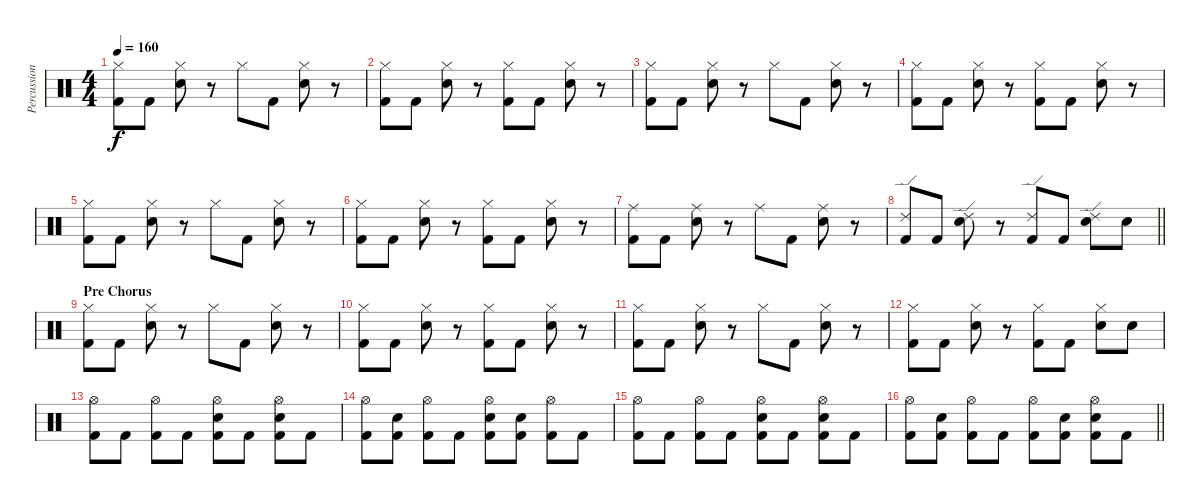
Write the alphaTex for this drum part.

\track ("Percussion" "Percussion") {instrument percussion}
\staff {score}
\articulation defaults
\ts (4 4)
\tempo 160
\clef neutral
\ks c
("Hi-Hat (closed)" "Kick (hit) 2").8{dy f} "Kick (hit) 2".8 ("Hi-Hat (closed)" "Snare (hit) 2").8 r.8 "Hi-Hat (closed)".8 "Kick (hit) 2".8 ("Hi-Hat (closed)" "Snare (hit) 2").8 r.8 |
("Hi-Hat (closed)" "Kick (hit) 2").8 "Kick (hit) 2".8 ("Hi-Hat (closed)" "Snare (hit) 2").8 r.8 ("Hi-Hat (closed)" "Kick (hit) 2").8 "Kick (hit) 2".8 ("Hi-Hat (closed)" "Snare (hit) 2").8 r.8 |
("Hi-Hat (closed)" "Kick (hit) 2").8 "Kick (hit) 2".8 ("Hi-Hat (closed)" "Snare (hit) 2").8 r.8 "Hi-Hat (closed)".8 "Kick (hit) 2".8 ("Hi-Hat (closed)" "Snare (hit) 2").8 r.8 |
("Hi-Hat (closed)" "Kick (hit) 2").8 "Kick (hit) 2".8 ("Hi-Hat (closed)" "Snare (hit) 2").8 r.8 ("Hi-Hat (closed)" "Kick (hit) 2").8 "Kick (hit) 2".8 ("Hi-Hat (closed)" "Snare (hit) 2").8 r.8 |
("Hi-Hat (closed)" "Kick (hit) 2").8 "Kick (hit) 2".8 ("Hi-Hat (closed)" "Snare (hit) 2").8 r.8 "Hi-Hat (closed)".8 "Kick (hit) 2".8 ("Hi-Hat (closed)" "Snare (hit) 2").8 r.8 |
("Hi-Hat (closed)" "Kick (hit) 2").8 "Kick (hit) 2".8 ("Hi-Hat (closed)" "Snare (hit) 2").8 r.8 ("Hi-Hat (closed)" "Kick (hit) 2").8 "Kick (hit) 2".8 ("Hi-Hat (closed)" "Snare (hit) 2").8 r.8 |
("Ride (middle)" "Kick (hit) 2").8 "Kick (hit) 2".8 ("Ride (middle)" "Snare (hit) 2").8 r.8 "Ride (middle)".8 "Kick (hit) 2".8 ("Ride (middle)" "Snare (hit) 2").8 r.8 |
\barLineRight lightlight
("Ride (edge) 2" "Kick (hit) 2").8 "Kick (hit) 2".8 ("Ride (edge) 2" "Snare (hit) 2").8 r.8 ("Ride (edge) 2" "Kick (hit) 2").8 "Kick (hit) 2".8 ("Ride (edge) 2" "Snare (hit) 2").8 "Snare (hit) 2".8 |
\section ("" "Pre Chorus")
("Hi-Hat (closed)" "Kick (hit) 2").8 "Kick (hit) 2".8 ("Hi-Hat (closed)" "Snare (hit) 2").8 r.8 "Hi-Hat (closed)".8 "Kick (hit) 2".8 ("Hi-Hat (closed)" "Snare (hit) 2").8 r.8 |
("Hi-Hat (closed)" "Kick (hit) 2").8 "Kick (hit) 2".8 ("Hi-Hat (closed)" "Snare (hit) 2").8 r.8 ("Hi-Hat (closed)" "Kick (hit) 2").8 "Kick (hit) 2".8 ("Hi-Hat (closed)" "Snare (hit) 2").8 r.8 |
("Hi-Hat (closed)" "Kick (hit) 2").8 "Kick (hit) 2".8 ("Hi-Hat (closed)" "Snare (hit) 2").8 r.8 "Hi-Hat (closed)".8 "Kick (hit) 2".8 ("Hi-Hat (closed)" "Snare (hit) 2").8 r.8 |
("Hi-Hat (closed)" "Kick (hit) 2").8 "Kick (hit) 2".8 ("Hi-Hat (closed)" "Snare (hit) 2").8 r.8 ("Hi-Hat (closed)" "Kick (hit) 2").8 "Kick (hit) 2".8 ("Hi-Hat (closed)" "Snare (hit) 2").8 "Snare (hit) 2".8 |
("Hi-Hat (open)" "Kick (hit) 2").8 "Kick (hit) 2".8 ("Hi-Hat (open)" "Kick (hit) 2").8 "Kick (hit) 2".8 ("Hi-Hat (open)" "Snare (hit) 2" "Kick (hit) 2").8 "Kick (hit) 2".8 ("Hi-Hat (open)" "Snare (hit) 2" "Kick (hit) 2").8 "Kick (hit) 2".8 |
("Hi-Hat (open)" "Kick (hit) 2").8 ("Snare (hit) 2" "Kick (hit) 2").8 ("Hi-Hat (open)" "Kick (hit) 2").8 "Kick (hit) 2".8 ("Hi-Hat (open)" "Snare (hit) 2" "Kick (hit) 2").8 ("Snare (hit) 2" "Kick (hit) 2").8 ("Hi-Hat (open)" "Kick (hit) 2").8 "Kick (hit) 2".8 |
("Hi-Hat (open)" "Kick (hit) 2").8 "Kick (hit) 2".8 ("Hi-Hat (open)" "Kick (hit) 2").8 "Kick (hit) 2".8 ("Hi-Hat (open)" "Snare (hit) 2" "Kick (hit) 2").8 "Kick (hit) 2".8 ("Hi-Hat (open)" "Snare (hit) 2" "Kick (hit) 2").8 "Kick (hit) 2".8 |
\barLineRight lightlight
("Hi-Hat (open)" "Kick (hit) 2").8 ("Snare (hit) 2" "Kick (hit) 2").8 ("Hi-Hat (open)" "Kick (hit) 2").8 "Kick (hit) 2".8 ("Hi-Hat (open)" "Kick (hit) 2").8 ("Snare (hit) 2" "Kick (hit) 2").8 ("Hi-Hat (open)" "Snare (hit) 2" "Kick (hit) 2").8 "Kick (hit) 2".8
